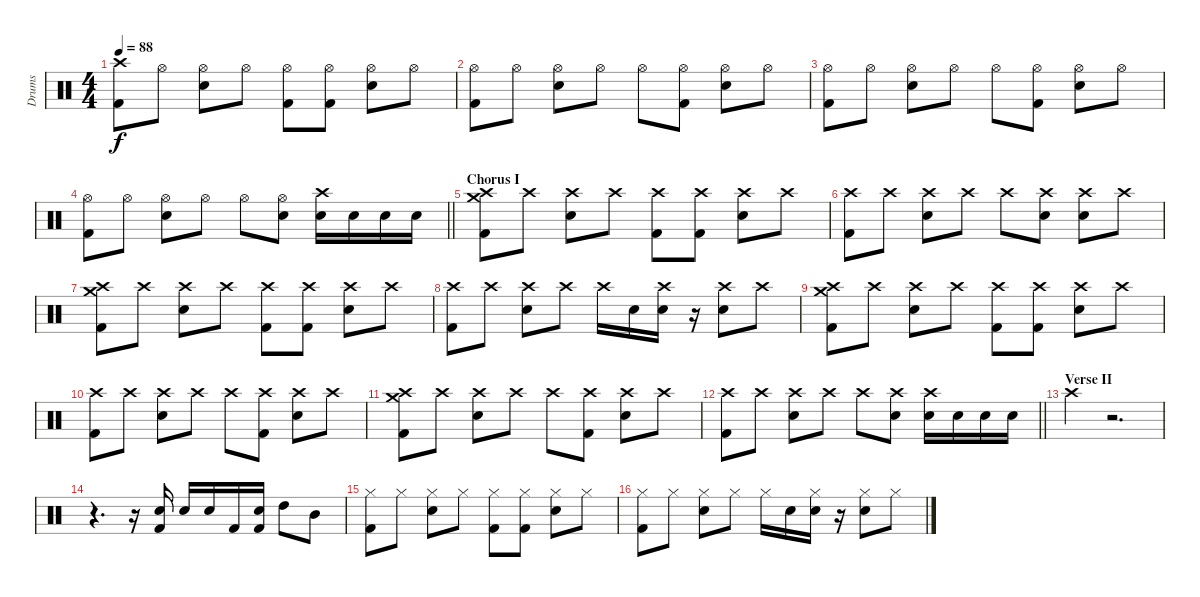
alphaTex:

\track ("Drums" "Drums") {instrument percussion}
\staff {score}
\articulation defaults
\ts (4 4)
\tempo 88
\clef neutral
\ks c
("Crash high (hit)" "Kick (hit) 2").8{dy f} "Hi-Hat (open)".8 ("Hi-Hat (open)" "Electric Snare (hit)").8 "Hi-Hat (open)".8 ("Hi-Hat (open)" "Kick (hit) 2").8 ("Hi-Hat (open)" "Kick (hit) 2").8 ("Hi-Hat (open)" "Electric Snare (hit)").8 "Hi-Hat (open)".8 |
("Hi-Hat (open)" "Kick (hit) 2").8 "Hi-Hat (open)".8 ("Hi-Hat (open)" "Electric Snare (hit)").8 "Hi-Hat (open)".8 "Hi-Hat (open)".8 ("Hi-Hat (open)" "Kick (hit) 2").8 ("Hi-Hat (open)" "Electric Snare (hit)").8 "Hi-Hat (open)".8 |
("Hi-Hat (open)" "Kick (hit) 2").8 "Hi-Hat (open)".8 ("Hi-Hat (open)" "Electric Snare (hit)").8 "Hi-Hat (open)".8 "Hi-Hat (open)".8 ("Hi-Hat (open)" "Kick (hit) 2").8 ("Hi-Hat (open)" "Electric Snare (hit)").8 "Hi-Hat (open)".8 |
\barLineRight lightlight
("Hi-Hat (open)" "Kick (hit) 2").8 "Hi-Hat (open)".8 ("Hi-Hat (open)" "Electric Snare (hit)").8 "Hi-Hat (open)".8 "Hi-Hat (open)".8 ("Hi-Hat (open)" "Electric Snare (hit)").8 ("Crash high (hit)" "Electric Snare (hit)").16 "Electric Snare (hit)".16 "Electric Snare (hit)".16 "Electric Snare (hit)".16 |
\section ("" "Chorus I")
("Crash high (hit)" "Crash medium (hit)" "Kick (hit) 2").8 "Crash high (hit)".8 ("Crash high (hit)" "Electric Snare (hit)").8 "Crash high (hit)".8 ("Crash high (hit)" "Kick (hit) 2").8 ("Crash high (hit)" "Kick (hit) 2").8 ("Crash high (hit)" "Electric Snare (hit)").8 "Crash high (hit)".8 |
("Crash high (hit)" "Kick (hit) 2").8 "Crash high (hit)".8 ("Crash high (hit)" "Electric Snare (hit)").8 "Crash high (hit)".8 "Crash high (hit)".8 ("Crash high (hit)" "Electric Snare (hit)").8 ("Crash high (hit)" "Electric Snare (hit)").8 "Crash high (hit)".8 |
("Crash high (hit)" "Crash medium (hit)" "Kick (hit) 2").8 "Crash high (hit)".8 ("Crash high (hit)" "Electric Snare (hit)").8 "Crash high (hit)".8 ("Crash high (hit)" "Kick (hit) 2").8 ("Crash high (hit)" "Kick (hit) 2").8 ("Crash high (hit)" "Electric Snare (hit)").8 "Crash high (hit)".8 |
("Crash high (hit)" "Kick (hit) 2").8 "Crash high (hit)".8 ("Crash high (hit)" "Electric Snare (hit)").8 "Crash high (hit)".8 "Crash high (hit)".16 "Electric Snare (hit)".16 ("Crash high (hit)" "Electric Snare (hit)").16 r.16 ("Crash high (hit)" "Electric Snare (hit)").8 "Crash high (hit)".8 |
("Crash high (hit)" "Crash medium (hit)" "Kick (hit) 2").8 "Crash high (hit)".8 ("Crash high (hit)" "Electric Snare (hit)").8 "Crash high (hit)".8 ("Crash high (hit)" "Kick (hit) 2").8 ("Crash high (hit)" "Kick (hit) 2").8 ("Crash high (hit)" "Electric Snare (hit)").8 "Crash high (hit)".8 |
("Crash high (hit)" "Kick (hit) 2").8 "Crash high (hit)".8 ("Crash high (hit)" "Electric Snare (hit)").8 "Crash high (hit)".8 "Crash high (hit)".8 ("Crash high (hit)" "Kick (hit) 2").8 ("Crash high (hit)" "Electric Snare (hit)").8 "Crash high (hit)".8 |
("Crash high (hit)" "Crash medium (hit)" "Kick (hit) 2").8 "Crash high (hit)".8 ("Crash high (hit)" "Electric Snare (hit)").8 "Crash high (hit)".8 "Crash high (hit)".8 ("Crash high (hit)" "Kick (hit) 2").8 ("Crash high (hit)" "Electric Snare (hit)").8 "Crash high (hit)".8 |
\barLineRight lightlight
("Crash high (hit)" "Kick (hit) 2").8 "Crash high (hit)".8 ("Crash high (hit)" "Electric Snare (hit)").8 "Crash high (hit)".8 "Crash high (hit)".8 ("Crash high (hit)" "Electric Snare (hit)").8 ("Crash high (hit)" "Electric Snare (hit)").16 "Electric Snare (hit)".16 "Electric Snare (hit)".16 "Electric Snare (hit)".16 |
\section ("" "Verse II")
"Crash high (hit)".4 r.2{d} |
r.4{d} r.16 ("Electric Snare (hit)" "Kick (hit) 2").16 "Electric Snare (hit)".16 "Electric Snare (hit)".16 "Kick (hit) 2".16 ("Electric Snare (hit)" "Kick (hit) 2").16 "High Tom (hit)".8 "Mid Tom (hit)".8 |
("Hi-Hat (closed)" "Kick (hit) 2").8 "Hi-Hat (closed)".8 ("Hi-Hat (closed)" "Electric Snare (hit)").8 "Hi-Hat (closed)".8 ("Hi-Hat (closed)" "Kick (hit) 2").8 ("Hi-Hat (closed)" "Kick (hit) 2").8 ("Hi-Hat (closed)" "Electric Snare (hit)").8 "Hi-Hat (closed)".8 |
("Hi-Hat (closed)" "Kick (hit) 2").8 "Hi-Hat (closed)".8 ("Hi-Hat (closed)" "Electric Snare (hit)").8 "Hi-Hat (closed)".8 "Hi-Hat (closed)".16 "Electric Snare (hit)".16 ("Hi-Hat (closed)" "Electric Snare (hit)").16 r.16 ("Hi-Hat (closed)" "Electric Snare (hit)").8 "Hi-Hat (closed)".8
